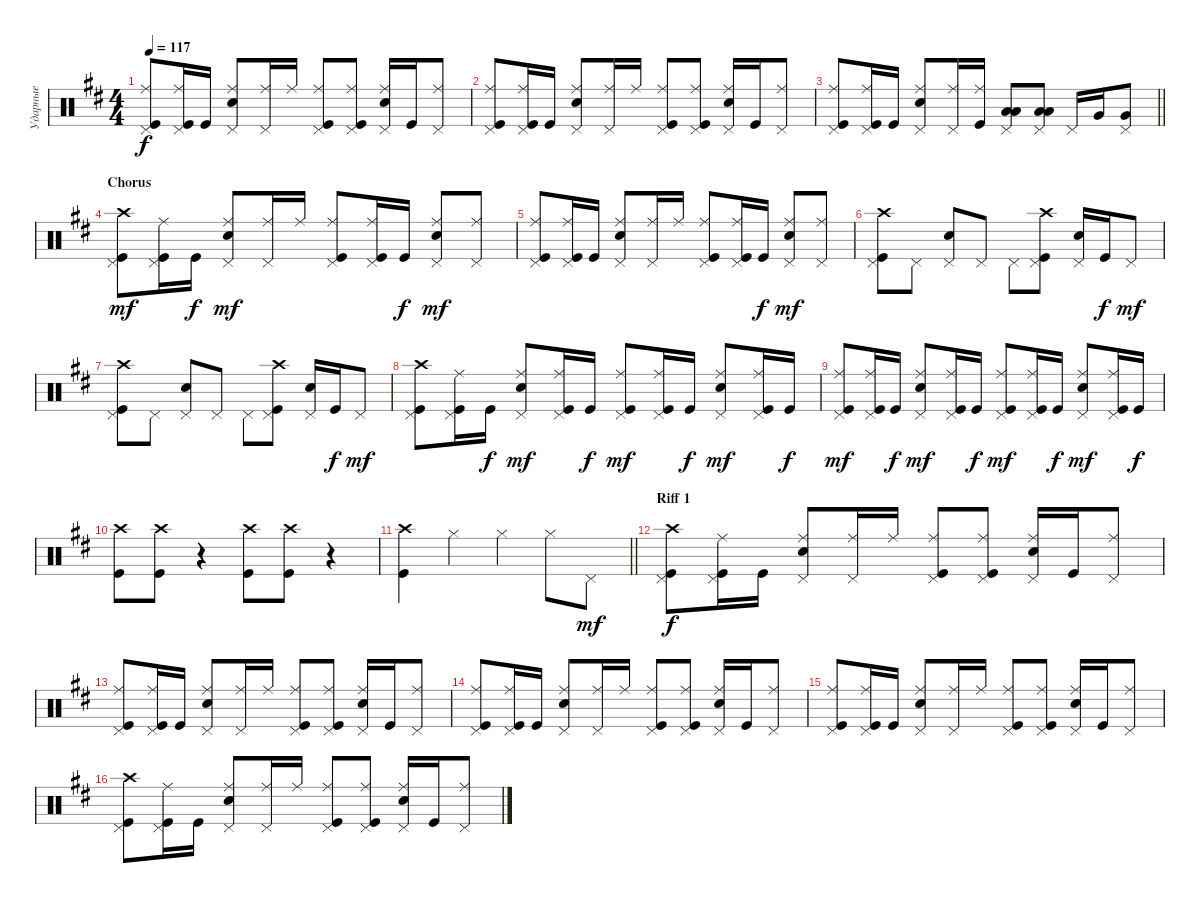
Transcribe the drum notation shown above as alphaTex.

\track ("Ударные" "Ударные") {instrument percussion}
\staff {score}
\articulation defaults
\ts (4 4)
\tempo 117
\clef neutral
\ks d
("Kick (hit)" "Ride (middle)" "Pedal Hi-Hat (hit)").8{dy f} ("Kick (hit)" "Ride (middle)" "Pedal Hi-Hat (hit)").16 "Kick (hit)".16 ("Snare (hit) 2" "Ride (middle)" "Pedal Hi-Hat (hit)").8 ("Ride (middle)" "Pedal Hi-Hat (hit)").16 "Ride (middle)".16 ("Kick (hit)" "Ride (middle)" "Pedal Hi-Hat (hit)").8 ("Ride (middle)" "Kick (hit)" "Pedal Hi-Hat (hit)").8 ("Snare (hit) 2" "Ride (middle)" "Pedal Hi-Hat (hit)").16 "Kick (hit)".16 ("Ride (middle)" "Pedal Hi-Hat (hit)").8 |
("Kick (hit)" "Ride (middle)" "Pedal Hi-Hat (hit)").8 ("Kick (hit)" "Ride (middle)" "Pedal Hi-Hat (hit)").16 "Kick (hit)".16 ("Snare (hit) 2" "Ride (middle)" "Pedal Hi-Hat (hit)").8 ("Ride (middle)" "Pedal Hi-Hat (hit)").16 "Ride (middle)".16 ("Kick (hit)" "Ride (middle)" "Pedal Hi-Hat (hit)").8 ("Ride (middle)" "Kick (hit)" "Pedal Hi-Hat (hit)").8 ("Snare (hit) 2" "Ride (middle)" "Pedal Hi-Hat (hit)").16 "Kick (hit)".16 ("Ride (middle)" "Pedal Hi-Hat (hit)").8 |
\barLineRight lightlight
("Kick (hit)" "Ride (middle)" "Pedal Hi-Hat (hit)").8 ("Kick (hit)" "Ride (middle)" "Pedal Hi-Hat (hit)").16 "Kick (hit)".16 ("Snare (hit) 2" "Ride (middle)" "Pedal Hi-Hat (hit)").8 ("Ride (middle)" "Pedal Hi-Hat (hit)").16 ("Ride (middle)" "Kick (hit)").16 ("Low Tom (hit)" "Low Tom (hit)" "Pedal Hi-Hat (hit)").8{bd 120} ("Low Tom (hit)" "Low Tom (hit)" "Pedal Hi-Hat (hit)").8{bd 120} "Pedal Hi-Hat (hit)".16 "Very Low Tom (hit)".16 ("Pedal Hi-Hat (hit)" "Very Low Tom (hit)").8 |
\section ("" "Chorus")
("Kick (hit)" "Crash high (hit)" "Pedal Hi-Hat (hit)").8{dy mf} ("Kick (hit)" "Ride (middle)" "Pedal Hi-Hat (hit)").16 "Kick (hit)".16{dy f} ("Snare (hit) 2" "Ride (middle)" "Pedal Hi-Hat (hit)").8{dy mf} ("Ride (middle)" "Pedal Hi-Hat (hit)").16 "Ride (middle)".16 ("Kick (hit)" "Ride (middle)" "Pedal Hi-Hat (hit)").8 ("Ride (middle)" "Kick (hit)" "Pedal Hi-Hat (hit)").16 "Kick (hit)".16{dy f} ("Snare (hit) 2" "Ride (middle)" "Pedal Hi-Hat (hit)").8{dy mf} ("Ride (middle)" "Pedal Hi-Hat (hit)").8 |
("Kick (hit)" "Ride (middle)" "Pedal Hi-Hat (hit)").8 ("Kick (hit)" "Ride (middle)" "Pedal Hi-Hat (hit)").16 "Kick (hit)".16 ("Snare (hit) 2" "Ride (middle)" "Pedal Hi-Hat (hit)").8 ("Ride (middle)" "Pedal Hi-Hat (hit)").16 "Ride (middle)".16 ("Kick (hit)" "Ride (middle)" "Pedal Hi-Hat (hit)").8 ("Ride (middle)" "Kick (hit)" "Pedal Hi-Hat (hit)").16 "Kick (hit)".16{dy f} ("Snare (hit) 2" "Ride (middle)" "Pedal Hi-Hat (hit)").8{dy mf} ("Ride (middle)" "Pedal Hi-Hat (hit)").8 |
("Kick (hit)" "Crash high (hit)" "Pedal Hi-Hat (hit)").8 "Pedal Hi-Hat (hit)".8 ("Snare (hit) 2" "Pedal Hi-Hat (hit)").8 "Pedal Hi-Hat (hit)".8 "Pedal Hi-Hat (hit)".8 ("Kick (hit)" "Crash high (hit)" "Pedal Hi-Hat (hit)").8 ("Snare (hit) 2" "Pedal Hi-Hat (hit)").16 "Kick (hit)".16{dy f} "Pedal Hi-Hat (hit)".8{dy mf} |
("Kick (hit)" "Crash high (hit)" "Pedal Hi-Hat (hit)").8 "Pedal Hi-Hat (hit)".8 ("Snare (hit) 2" "Pedal Hi-Hat (hit)").8 "Pedal Hi-Hat (hit)".8 "Pedal Hi-Hat (hit)".8 ("Kick (hit)" "Crash high (hit)" "Pedal Hi-Hat (hit)").8 ("Snare (hit) 2" "Pedal Hi-Hat (hit)").16 "Kick (hit)".16{dy f} "Pedal Hi-Hat (hit)".8{dy mf} |
("Kick (hit)" "Crash high (hit)" "Pedal Hi-Hat (hit)").8 ("Kick (hit)" "Ride (middle)" "Pedal Hi-Hat (hit)").16 "Kick (hit)".16{dy f} ("Snare (hit) 2" "Ride (middle)" "Pedal Hi-Hat (hit)").8{dy mf} ("Ride (middle)" "Kick (hit)" "Pedal Hi-Hat (hit)").16 "Kick (hit)".16{dy f} ("Kick (hit)" "Ride (middle)" "Pedal Hi-Hat (hit)").8{dy mf} ("Ride (middle)" "Kick (hit)" "Pedal Hi-Hat (hit)").16 "Kick (hit)".16{dy f} ("Snare (hit) 2" "Ride (middle)" "Pedal Hi-Hat (hit)").8{dy mf} ("Ride (middle)" "Kick (hit)" "Pedal Hi-Hat (hit)").16 "Kick (hit)".16{dy f} |
("Kick (hit)" "Ride (middle)" "Pedal Hi-Hat (hit)").8{dy mf} ("Kick (hit)" "Ride (middle)" "Pedal Hi-Hat (hit)").16 "Kick (hit)".16{dy f} ("Snare (hit) 2" "Ride (middle)" "Pedal Hi-Hat (hit)").8{dy mf} ("Ride (middle)" "Kick (hit)" "Pedal Hi-Hat (hit)").16 "Kick (hit)".16{dy f} ("Kick (hit)" "Ride (middle)" "Pedal Hi-Hat (hit)").8{dy mf} ("Ride (middle)" "Kick (hit)" "Pedal Hi-Hat (hit)").16 "Kick (hit)".16{dy f} ("Snare (hit) 2" "Ride (middle)" "Pedal Hi-Hat (hit)").8{dy mf} ("Ride (middle)" "Kick (hit)" "Pedal Hi-Hat (hit)").16 "Kick (hit)".16{dy f} |
("Kick (hit)" "Crash high (hit)").8 ("Kick (hit)" "Crash high (hit)").8 r.4 ("Kick (hit)" "Crash high (hit)").8 ("Kick (hit)" "Crash high (hit)").8 r.4 |
\barLineRight lightlight
("Kick (hit)" "Crash high (hit)").4 "Hi-Hat (closed)".4 "Hi-Hat (closed)".4 "Hi-Hat (closed)".8 "Pedal Hi-Hat (hit)".8{dy mf} |
\section ("" "Riff 1")
("Kick (hit)" "Crash high (hit)" "Pedal Hi-Hat (hit)").8{dy f} ("Kick (hit)" "Ride (middle)" "Pedal Hi-Hat (hit)").16 "Kick (hit)".16 ("Snare (hit) 2" "Ride (middle)" "Pedal Hi-Hat (hit)").8 ("Ride (middle)" "Pedal Hi-Hat (hit)").16 "Ride (middle)".16 ("Kick (hit)" "Ride (middle)" "Pedal Hi-Hat (hit)").8 ("Ride (middle)" "Kick (hit)" "Pedal Hi-Hat (hit)").8 ("Snare (hit) 2" "Ride (middle)" "Pedal Hi-Hat (hit)").16 "Kick (hit)".16 ("Ride (middle)" "Pedal Hi-Hat (hit)").8 |
("Kick (hit)" "Ride (middle)" "Pedal Hi-Hat (hit)").8 ("Kick (hit)" "Ride (middle)" "Pedal Hi-Hat (hit)").16 "Kick (hit)".16 ("Snare (hit) 2" "Ride (middle)" "Pedal Hi-Hat (hit)").8 ("Ride (middle)" "Pedal Hi-Hat (hit)").16 "Ride (middle)".16 ("Kick (hit)" "Ride (middle)" "Pedal Hi-Hat (hit)").8 ("Ride (middle)" "Kick (hit)" "Pedal Hi-Hat (hit)").8 ("Snare (hit) 2" "Ride (middle)" "Pedal Hi-Hat (hit)").16 "Kick (hit)".16 ("Ride (middle)" "Pedal Hi-Hat (hit)").8 |
("Kick (hit)" "Ride (middle)" "Pedal Hi-Hat (hit)").8 ("Kick (hit)" "Ride (middle)" "Pedal Hi-Hat (hit)").16 "Kick (hit)".16 ("Snare (hit) 2" "Ride (middle)" "Pedal Hi-Hat (hit)").8 ("Ride (middle)" "Pedal Hi-Hat (hit)").16 "Ride (middle)".16 ("Kick (hit)" "Ride (middle)" "Pedal Hi-Hat (hit)").8 ("Ride (middle)" "Kick (hit)" "Pedal Hi-Hat (hit)").8 ("Snare (hit) 2" "Ride (middle)" "Pedal Hi-Hat (hit)").16 "Kick (hit)".16 ("Ride (middle)" "Pedal Hi-Hat (hit)").8 |
("Kick (hit)" "Ride (middle)" "Pedal Hi-Hat (hit)").8 ("Kick (hit)" "Ride (middle)" "Pedal Hi-Hat (hit)").16 "Kick (hit)".16 ("Snare (hit) 2" "Ride (middle)" "Pedal Hi-Hat (hit)").8 ("Ride (middle)" "Pedal Hi-Hat (hit)").16 "Ride (middle)".16 ("Kick (hit)" "Ride (middle)" "Pedal Hi-Hat (hit)").8 ("Ride (middle)" "Kick (hit)" "Pedal Hi-Hat (hit)").8 ("Snare (hit) 2" "Ride (middle)" "Pedal Hi-Hat (hit)").16 "Kick (hit)".16 ("Ride (middle)" "Pedal Hi-Hat (hit)").8 |
("Kick (hit)" "Crash high (hit)" "Pedal Hi-Hat (hit)").8 ("Kick (hit)" "Ride (middle)" "Pedal Hi-Hat (hit)").16 "Kick (hit)".16 ("Snare (hit) 2" "Ride (middle)" "Pedal Hi-Hat (hit)").8 ("Ride (middle)" "Pedal Hi-Hat (hit)").16 "Ride (middle)".16 ("Kick (hit)" "Ride (middle)" "Pedal Hi-Hat (hit)").8 ("Ride (middle)" "Kick (hit)" "Pedal Hi-Hat (hit)").8 ("Snare (hit) 2" "Ride (middle)" "Pedal Hi-Hat (hit)").16 "Kick (hit)".16 ("Ride (middle)" "Pedal Hi-Hat (hit)").8
